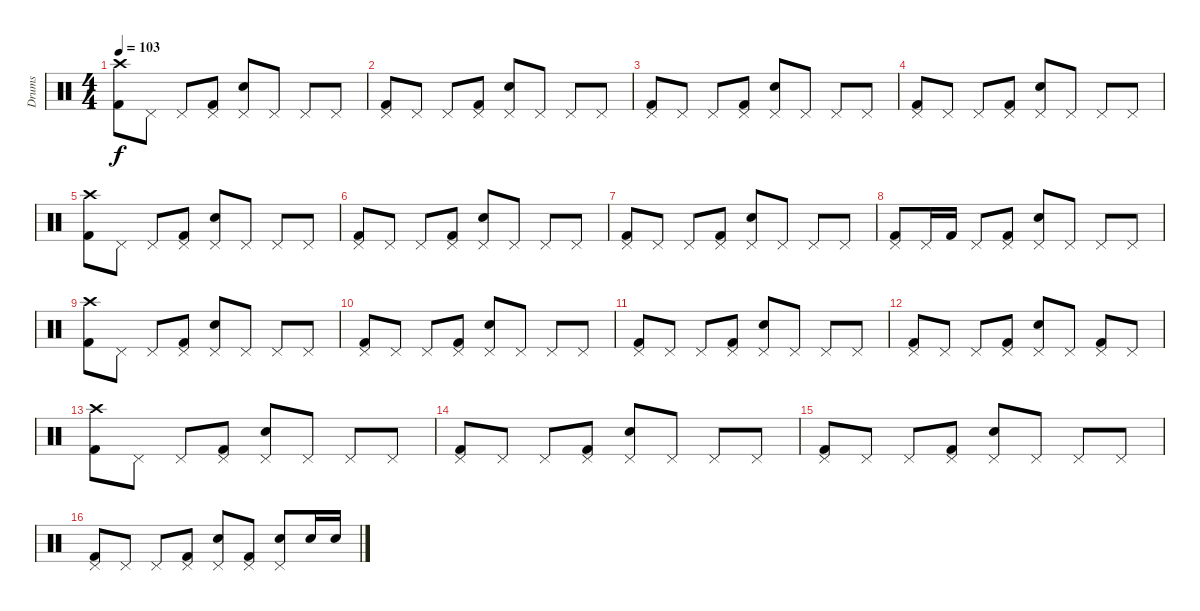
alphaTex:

\track ("Drums" "Drums") {instrument percussion}
\staff {score}
\articulation defaults
\ts (4 4)
\tempo 103
\clef neutral
\ks c
("Crash high (hit)" "Kick (hit) 2").8{dy f} "Pedal Hi-Hat (hit)".8 "Pedal Hi-Hat (hit)".8 ("Pedal Hi-Hat (hit)" "Kick (hit) 2").8 ("Pedal Hi-Hat (hit)" "Electric Snare (hit)").8 "Pedal Hi-Hat (hit)".8 "Pedal Hi-Hat (hit)".8 "Pedal Hi-Hat (hit)".8 |
("Pedal Hi-Hat (hit)" "Kick (hit) 2").8 "Pedal Hi-Hat (hit)".8 "Pedal Hi-Hat (hit)".8 ("Pedal Hi-Hat (hit)" "Kick (hit) 2").8 ("Pedal Hi-Hat (hit)" "Electric Snare (hit)").8 "Pedal Hi-Hat (hit)".8 "Pedal Hi-Hat (hit)".8 "Pedal Hi-Hat (hit)".8 |
("Pedal Hi-Hat (hit)" "Kick (hit) 2").8 "Pedal Hi-Hat (hit)".8 "Pedal Hi-Hat (hit)".8 ("Pedal Hi-Hat (hit)" "Kick (hit) 2").8 ("Pedal Hi-Hat (hit)" "Electric Snare (hit)").8 "Pedal Hi-Hat (hit)".8 "Pedal Hi-Hat (hit)".8 "Pedal Hi-Hat (hit)".8 |
("Pedal Hi-Hat (hit)" "Kick (hit) 2").8 "Pedal Hi-Hat (hit)".8 "Pedal Hi-Hat (hit)".8 ("Pedal Hi-Hat (hit)" "Kick (hit) 2").8 ("Pedal Hi-Hat (hit)" "Electric Snare (hit)").8 "Pedal Hi-Hat (hit)".8 "Pedal Hi-Hat (hit)".8 "Pedal Hi-Hat (hit)".8 |
("Crash high (hit)" "Kick (hit) 2").8 "Pedal Hi-Hat (hit)".8 "Pedal Hi-Hat (hit)".8 ("Pedal Hi-Hat (hit)" "Kick (hit) 2").8 ("Pedal Hi-Hat (hit)" "Electric Snare (hit)").8 "Pedal Hi-Hat (hit)".8 "Pedal Hi-Hat (hit)".8 "Pedal Hi-Hat (hit)".8 |
("Pedal Hi-Hat (hit)" "Kick (hit) 2").8 "Pedal Hi-Hat (hit)".8 "Pedal Hi-Hat (hit)".8 ("Pedal Hi-Hat (hit)" "Kick (hit) 2").8 ("Pedal Hi-Hat (hit)" "Electric Snare (hit)").8 "Pedal Hi-Hat (hit)".8 "Pedal Hi-Hat (hit)".8 "Pedal Hi-Hat (hit)".8 |
("Pedal Hi-Hat (hit)" "Kick (hit) 2").8 "Pedal Hi-Hat (hit)".8 "Pedal Hi-Hat (hit)".8 ("Pedal Hi-Hat (hit)" "Kick (hit) 2").8 ("Pedal Hi-Hat (hit)" "Electric Snare (hit)").8 "Pedal Hi-Hat (hit)".8 "Pedal Hi-Hat (hit)".8 "Pedal Hi-Hat (hit)".8 |
("Pedal Hi-Hat (hit)" "Kick (hit) 2").8 "Pedal Hi-Hat (hit)".16 "Kick (hit) 2".16 "Pedal Hi-Hat (hit)".8 ("Pedal Hi-Hat (hit)" "Kick (hit) 2").8 ("Pedal Hi-Hat (hit)" "Electric Snare (hit)").8 "Pedal Hi-Hat (hit)".8 "Pedal Hi-Hat (hit)".8 "Pedal Hi-Hat (hit)".8 |
("Crash high (hit)" "Kick (hit) 2").8 "Pedal Hi-Hat (hit)".8 "Pedal Hi-Hat (hit)".8 ("Pedal Hi-Hat (hit)" "Kick (hit) 2").8 ("Pedal Hi-Hat (hit)" "Electric Snare (hit)").8 "Pedal Hi-Hat (hit)".8 "Pedal Hi-Hat (hit)".8 "Pedal Hi-Hat (hit)".8 |
("Pedal Hi-Hat (hit)" "Kick (hit) 2").8 "Pedal Hi-Hat (hit)".8 "Pedal Hi-Hat (hit)".8 ("Pedal Hi-Hat (hit)" "Kick (hit) 2").8 ("Pedal Hi-Hat (hit)" "Electric Snare (hit)").8 "Pedal Hi-Hat (hit)".8 "Pedal Hi-Hat (hit)".8 "Pedal Hi-Hat (hit)".8 |
("Pedal Hi-Hat (hit)" "Kick (hit) 2").8 "Pedal Hi-Hat (hit)".8 "Pedal Hi-Hat (hit)".8 ("Pedal Hi-Hat (hit)" "Kick (hit) 2").8 ("Pedal Hi-Hat (hit)" "Electric Snare (hit)").8 "Pedal Hi-Hat (hit)".8 "Pedal Hi-Hat (hit)".8 "Pedal Hi-Hat (hit)".8 |
("Pedal Hi-Hat (hit)" "Kick (hit) 2").8 "Pedal Hi-Hat (hit)".8 "Pedal Hi-Hat (hit)".8 ("Pedal Hi-Hat (hit)" "Kick (hit) 2").8 ("Pedal Hi-Hat (hit)" "Electric Snare (hit)").8 "Pedal Hi-Hat (hit)".8 ("Pedal Hi-Hat (hit)" "Kick (hit) 2").8 "Pedal Hi-Hat (hit)".8 |
("Crash high (hit)" "Kick (hit) 2").8 "Pedal Hi-Hat (hit)".8 "Pedal Hi-Hat (hit)".8 ("Pedal Hi-Hat (hit)" "Kick (hit) 2").8 ("Pedal Hi-Hat (hit)" "Electric Snare (hit)").8 "Pedal Hi-Hat (hit)".8 "Pedal Hi-Hat (hit)".8 "Pedal Hi-Hat (hit)".8 |
("Pedal Hi-Hat (hit)" "Kick (hit) 2").8 "Pedal Hi-Hat (hit)".8 "Pedal Hi-Hat (hit)".8 ("Pedal Hi-Hat (hit)" "Kick (hit) 2").8 ("Pedal Hi-Hat (hit)" "Electric Snare (hit)").8 "Pedal Hi-Hat (hit)".8 "Pedal Hi-Hat (hit)".8 "Pedal Hi-Hat (hit)".8 |
("Pedal Hi-Hat (hit)" "Kick (hit) 2").8 "Pedal Hi-Hat (hit)".8 "Pedal Hi-Hat (hit)".8 ("Pedal Hi-Hat (hit)" "Kick (hit) 2").8 ("Pedal Hi-Hat (hit)" "Electric Snare (hit)").8 "Pedal Hi-Hat (hit)".8 "Pedal Hi-Hat (hit)".8 "Pedal Hi-Hat (hit)".8 |
("Pedal Hi-Hat (hit)" "Kick (hit) 2").8 "Pedal Hi-Hat (hit)".8 "Pedal Hi-Hat (hit)".8 ("Pedal Hi-Hat (hit)" "Kick (hit) 2").8 ("Pedal Hi-Hat (hit)" "Electric Snare (hit)").8 ("Pedal Hi-Hat (hit)" "Kick (hit) 2").8 ("Pedal Hi-Hat (hit)" "Electric Snare (hit)").8 "Electric Snare (hit)".16 "Electric Snare (hit)".16
